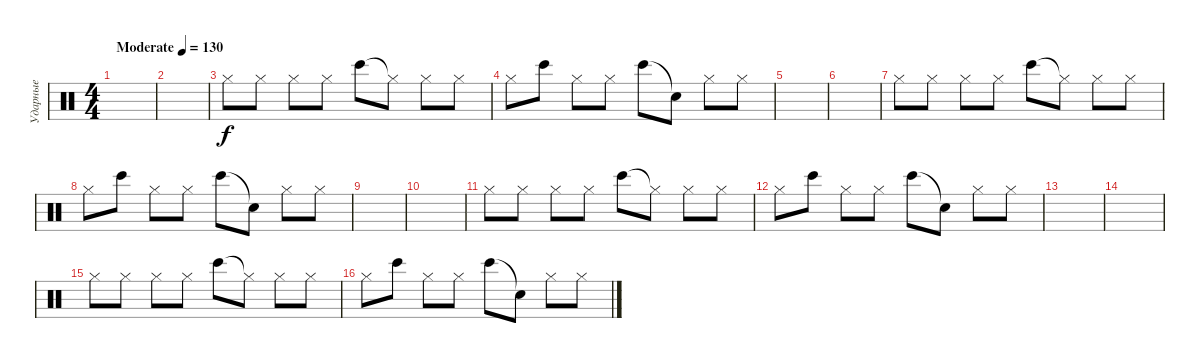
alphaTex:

\track ("Ударные" "Ударные") {instrument percussion}
\staff {score}
\articulation defaults
\ts (4 4)
\tempo (130 "Moderate")
\clef neutral
\ks c
|
|
"Hi-Hat (closed)".8 "Hi-Hat (closed)".8 "Hi-Hat (closed)".8 "Hi-Hat (closed)".8 "Bongo High (hit)".8 "Hi-Hat (closed)"{t}.8 "Hi-Hat (closed)".8 "Hi-Hat (closed)".8 |
"Hi-Hat (closed)".8 "Bongo High (hit)".8 "Hi-Hat (closed)".8 "Hi-Hat (closed)".8 "Bongo High (hit)".8 "Snare (hit)"{t}.8 "Hi-Hat (closed)".8 "Hi-Hat (closed)".8 |
|
|
"Hi-Hat (closed)".8 "Hi-Hat (closed)".8 "Hi-Hat (closed)".8 "Hi-Hat (closed)".8 "Bongo High (hit)".8 "Hi-Hat (closed)"{t}.8 "Hi-Hat (closed)".8 "Hi-Hat (closed)".8 |
"Hi-Hat (closed)".8 "Bongo High (hit)".8 "Hi-Hat (closed)".8 "Hi-Hat (closed)".8 "Bongo High (hit)".8 "Snare (hit)"{t}.8 "Hi-Hat (closed)".8 "Hi-Hat (closed)".8 |
|
|
"Hi-Hat (closed)".8 "Hi-Hat (closed)".8 "Hi-Hat (closed)".8 "Hi-Hat (closed)".8 "Bongo High (hit)".8 "Hi-Hat (closed)"{t}.8 "Hi-Hat (closed)".8 "Hi-Hat (closed)".8 |
"Hi-Hat (closed)".8 "Bongo High (hit)".8 "Hi-Hat (closed)".8 "Hi-Hat (closed)".8 "Bongo High (hit)".8 "Snare (hit)"{t}.8 "Hi-Hat (closed)".8 "Hi-Hat (closed)".8 |
|
|
"Hi-Hat (closed)".8 "Hi-Hat (closed)".8 "Hi-Hat (closed)".8 "Hi-Hat (closed)".8 "Bongo High (hit)".8 "Hi-Hat (closed)"{t}.8 "Hi-Hat (closed)".8 "Hi-Hat (closed)".8 |
"Hi-Hat (closed)".8 "Bongo High (hit)".8 "Hi-Hat (closed)".8 "Hi-Hat (closed)".8 "Bongo High (hit)".8 "Snare (hit)"{t}.8 "Hi-Hat (closed)".8 "Hi-Hat (closed)".8
